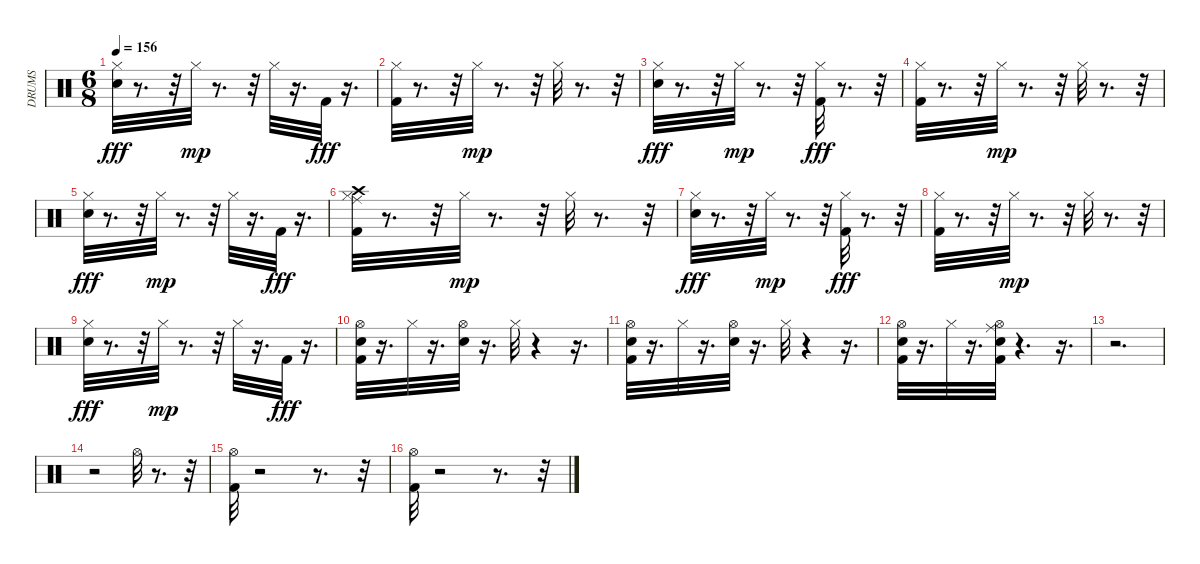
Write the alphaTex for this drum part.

\track ("DRUMS" "DRUMS") {instrument percussion}
\staff {score}
\articulation defaults
\ts (6 8)
\tempo 156
\clef neutral
\ks c
("Snare (hit) 2" "Hi-Hat (closed)").32{dy fff} r.8{d} r.32 "Hi-Hat (closed)".32{dy mp} r.8{d} r.32 "Hi-Hat (closed)".32 r.16{d} "Kick (hit) 2".32{dy fff} r.16{d} |
("Hi-Hat (closed)" "Kick (hit) 2").32 r.8{d} r.32 "Hi-Hat (closed)".32{dy mp} r.8{d} r.32 "Hi-Hat (closed)".32 r.8{d} r.32 |
("Hi-Hat (closed)" "Snare (hit) 2").32{dy fff} r.8{d} r.32 "Hi-Hat (closed)".32{dy mp} r.8{d} r.32 ("Hi-Hat (closed)" "Kick (hit) 2").32{dy fff} r.8{d} r.32 |
("Hi-Hat (closed)" "Kick (hit) 2").32 r.8{d} r.32 "Hi-Hat (closed)".32{dy mp} r.8{d} r.32 "Hi-Hat (closed)".32 r.8{d} r.32 |
("Hi-Hat (closed)" "Snare (hit) 2").32{dy fff} r.8{d} r.32 "Hi-Hat (closed)".32{dy mp} r.8{d} r.32 "Hi-Hat (closed)".32 r.16{d} "Kick (hit) 2".32{dy fff} r.16{d} |
("Crash high (hit)" "Ride (middle)" "Hi-Hat (closed)" "Kick (hit) 2").32 r.8{d} r.32 "Hi-Hat (closed)".32{dy mp} r.8{d} r.32 "Hi-Hat (closed)".32 r.8{d} r.32 |
("Hi-Hat (closed)" "Snare (hit) 2").32{dy fff} r.8{d} r.32 "Hi-Hat (closed)".32{dy mp} r.8{d} r.32 ("Hi-Hat (closed)" "Kick (hit) 2").32{dy fff} r.8{d} r.32 |
("Hi-Hat (closed)" "Kick (hit) 2").32 r.8{d} r.32 "Hi-Hat (closed)".32{dy mp} r.8{d} r.32 "Hi-Hat (closed)".32 r.8{d} r.32 |
("Hi-Hat (closed)" "Snare (hit) 2").32{dy fff} r.8{d} r.32 "Hi-Hat (closed)".32{dy mp} r.8{d} r.32 "Hi-Hat (closed)".32 r.16{d} "Kick (hit) 2".32{dy fff} r.16{d} |
("Hi-Hat (open)" "Snare (hit) 2" "Kick (hit) 2").32 r.16{d} "Hi-Hat (closed)".32 r.16{d} ("Hi-Hat (open)" "Snare (hit) 2").32 r.16{d} "Hi-Hat (closed)".32 r.4 r.16{d} |
("Hi-Hat (open)" "Snare (hit) 2" "Kick (hit) 2").32 r.16{d} "Hi-Hat (closed)".32 r.16{d} ("Hi-Hat (open)" "Snare (hit) 2").32 r.16{d} "Hi-Hat (closed)".32 r.4 r.16{d} |
("Hi-Hat (open)" "Snare (hit) 2" "Kick (hit) 2").32 r.16{d} "Hi-Hat (closed)".32 r.16{d} ("Ride (middle)" "Hi-Hat (open)" "Snare (hit) 2" "Kick (hit) 2").32 r.4{d} r.16{d} |
r.2{d} |
r.2 "Hi-Hat (open)".32 r.8{d} r.32 |
("Hi-Hat (open)" "Kick (hit) 2").32 r.2 r.8{d} r.32 |
("Kick (hit) 2" "Hi-Hat (open)").32 r.2 r.8{d} r.32
